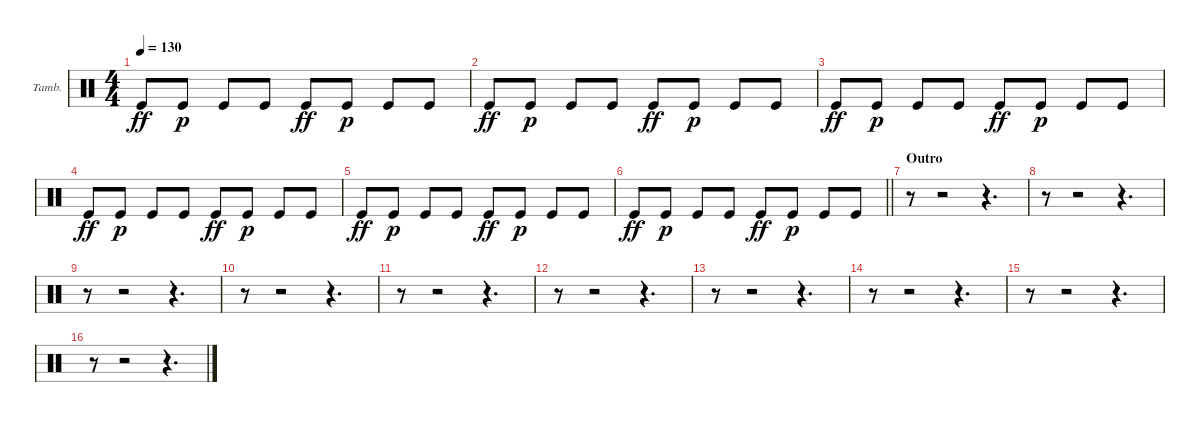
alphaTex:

\bracketExtendMode groupsimilarinstruments
\firstSystemTrackNameOrientation horizontal
\otherSystemsTrackNameOrientation horizontal
\track ("Tambourine" "Tamb.") {instrument percussion}
\staff {score}
\articulation defaults
\ts (4 4)
\tempo 130
\clef neutral
\ks c "Kick (hit)".8{dy ff} "Kick (hit)".8{dy p} "Kick (hit)".8 "Kick (hit)".8 "Kick (hit)".8{dy ff} "Kick (hit)".8{dy p} "Kick (hit)".8 "Kick (hit)".8
|
"Kick (hit)".8{dy ff} "Kick (hit)".8{dy p} "Kick (hit)".8 "Kick (hit)".8 "Kick (hit)".8{dy ff} "Kick (hit)".8{dy p} "Kick (hit)".8 "Kick (hit)".8 |
"Kick (hit)".8{dy ff} "Kick (hit)".8{dy p} "Kick (hit)".8 "Kick (hit)".8 "Kick (hit)".8{dy ff} "Kick (hit)".8{dy p} "Kick (hit)".8 "Kick (hit)".8 |
"Kick (hit)".8{dy ff} "Kick (hit)".8{dy p} "Kick (hit)".8 "Kick (hit)".8 "Kick (hit)".8{dy ff} "Kick (hit)".8{dy p} "Kick (hit)".8 "Kick (hit)".8 |
"Kick (hit)".8{dy ff} "Kick (hit)".8{dy p} "Kick (hit)".8 "Kick (hit)".8 "Kick (hit)".8{dy ff} "Kick (hit)".8{dy p} "Kick (hit)".8 "Kick (hit)".8 |
\barLineRight lightlight "Kick (hit)".8{dy ff} "Kick (hit)".8{dy p} "Kick (hit)".8 "Kick (hit)".8 "Kick (hit)".8{dy ff} "Kick (hit)".8{dy p} "Kick (hit)".8 "Kick (hit)".8
|
\section ("" "Outro")
r.8 r.2 r.4{d} |
r.8 r.2 r.4{d} |
r.8 r.2 r.4{d} |
r.8 r.2 r.4{d} |
r.8 r.2 r.4{d} |
r.8 r.2 r.4{d} |
r.8 r.2 r.4{d} |
r.8 r.2 r.4{d} |
r.8 r.2 r.4{d} |
r.8 r.2 r.4{d}
